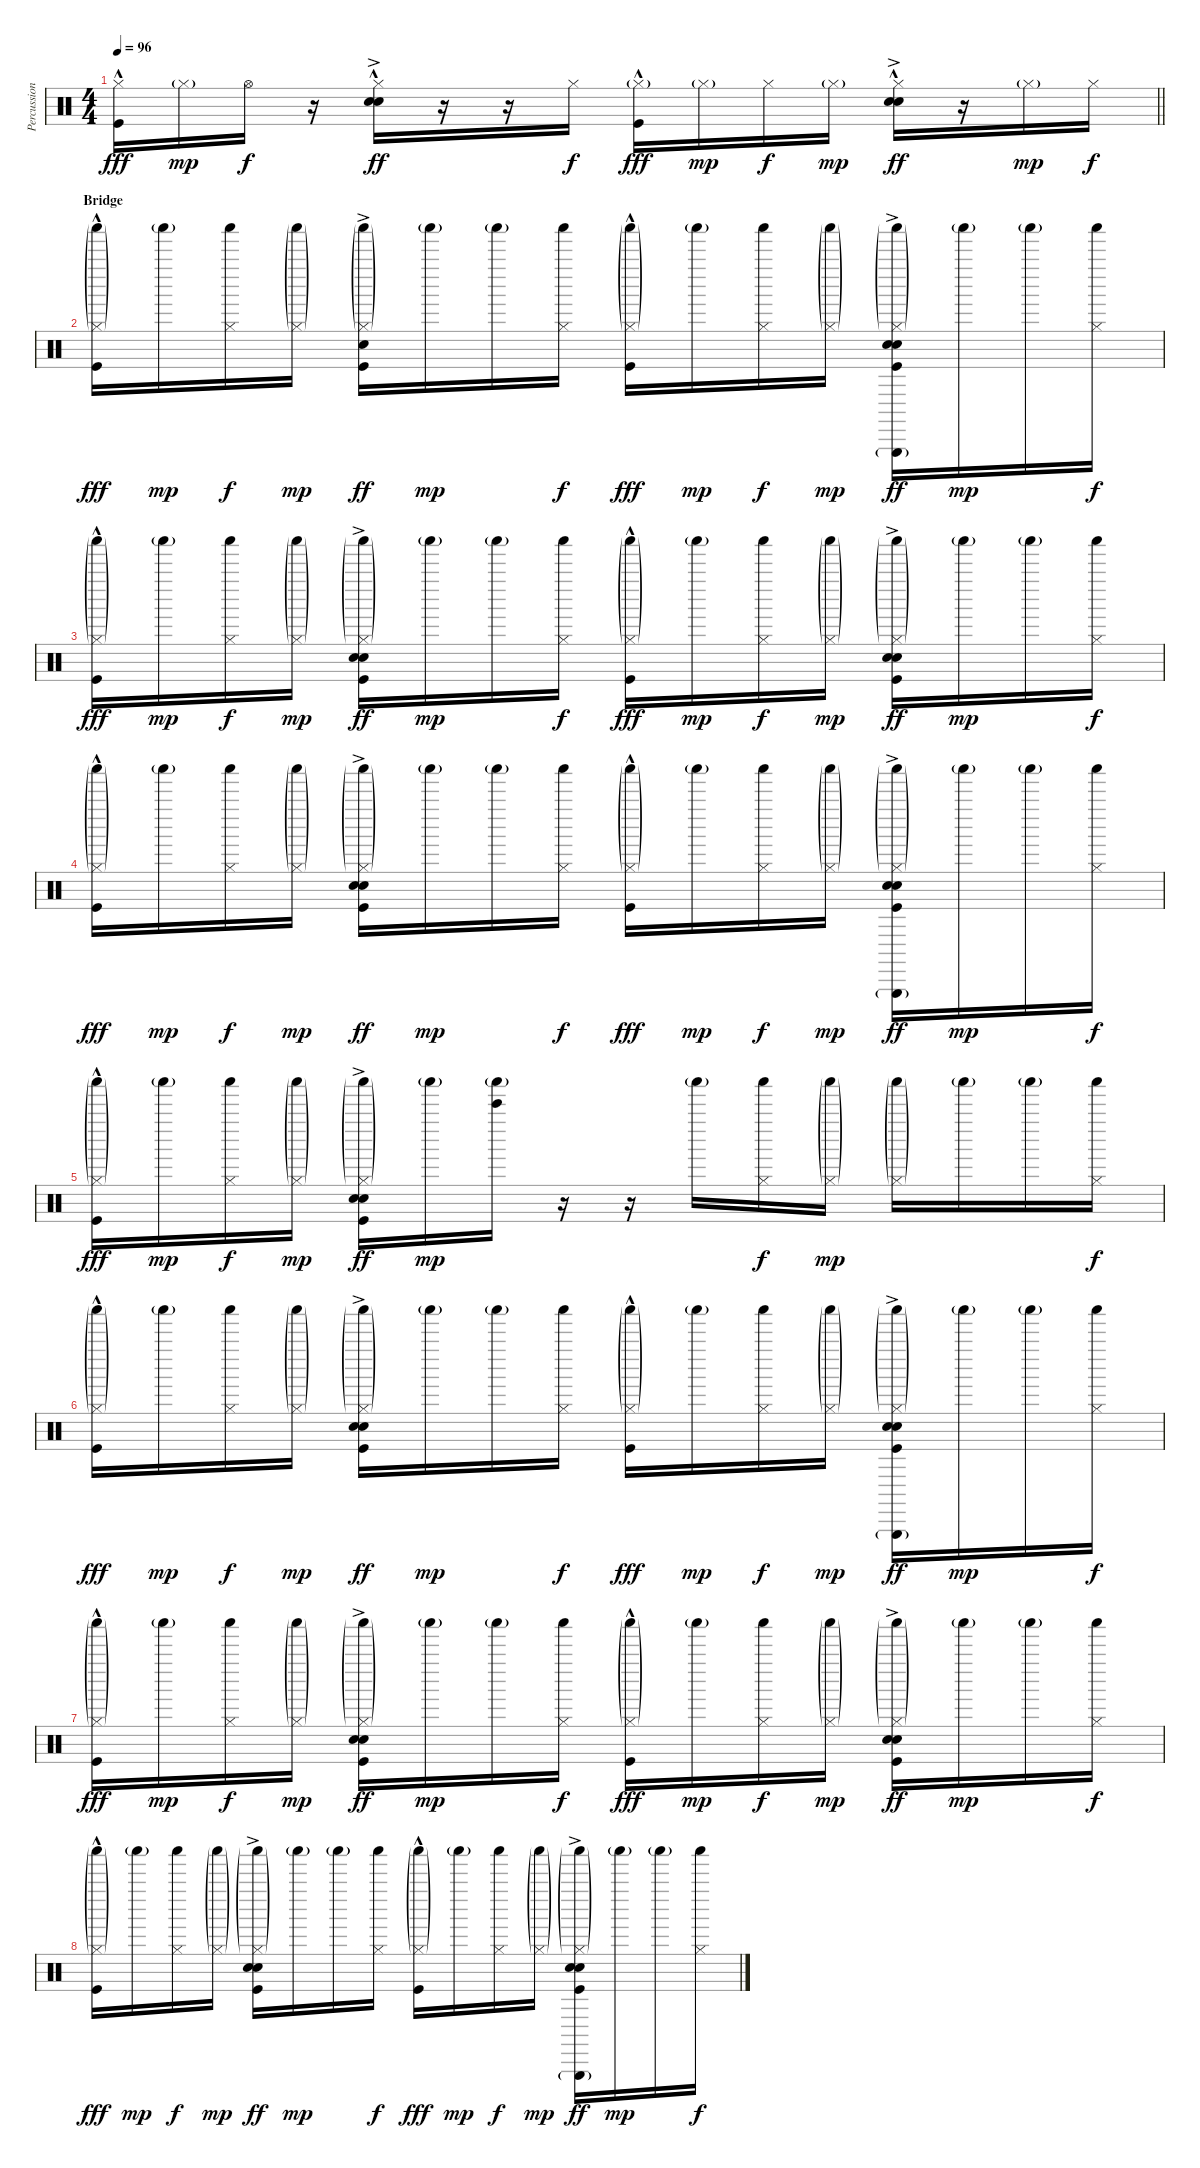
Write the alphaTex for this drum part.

\track ("Percussion" "Percussion") {instrument percussion}
\staff {score}
\articulation defaults
\ts (4 4)
\tempo 96
\clef neutral
\barLineRight lightlight
\ks c
("Hi-Hat (closed)" "Kick (hit)"{hac}).16{dy fff} "Hi-Hat (closed)"{g}.16{dy mp} "Hi-Hat (open)".16{dy f} r.16 ("Hi-Hat (closed)" "Hand Clap (hit)"{hac} "Snare (hit) 2"{ac}).16{dy ff} r.16 r.16 "Hi-Hat (closed)".16{dy f} ("Hi-Hat (closed)"{g} "Kick (hit)"{hac}).16{dy fff} "Hi-Hat (closed)"{g}.16{dy mp} "Hi-Hat (closed)".16{dy f} "Hi-Hat (closed)"{g}.16{dy mp} ("Hi-Hat (closed)" "Hand Clap (hit)"{hac} "Snare (hit) 2"{ac}).16{dy ff} r.16 "Hi-Hat (closed)"{g}.16{dy mp} "Hi-Hat (closed)".16{dy f} |
\section ("" "Bridge")
("Shaker (hit)"{g} "Hi-Hat (closed)"{g} "Kick (hit)"{hac}).16{dy fff} "Shaker (hit)"{g}.16{dy mp} ("Shaker (hit)" "Hi-Hat (closed)").16{dy f} ("Shaker (hit)"{g} "Hi-Hat (closed)"{g}).16{dy mp} ("Shaker (hit)"{g} "Hi-Hat (closed)"{g} "Snare (hit) 2"{ac} "Kick (hit)"{ac}).16{dy ff} "Shaker (hit)"{g}.16{dy mp} "Shaker (hit)"{g}.16 ("Shaker (hit)" "Hi-Hat (closed)").16{dy f} ("Shaker (hit)"{g} "Hi-Hat (closed)"{g} "Kick (hit)"{hac}).16{dy fff} "Shaker (hit)"{g}.16{dy mp} ("Shaker (hit)" "Hi-Hat (closed)").16{dy f} ("Shaker (hit)"{g} "Hi-Hat (closed)"{g}).16{dy mp} ("Triangle (hit)"{g} "Shaker (hit)"{g} "Hi-Hat (closed)"{g} "Hand Clap (hit)"{ac} "Snare (hit) 2"{ac} "Kick (hit)"{ac}).16{dy ff} "Shaker (hit)"{g}.16{dy mp} "Shaker (hit)"{g}.16 ("Shaker (hit)" "Hi-Hat (closed)").16{dy f} |
("Shaker (hit)"{g} "Hi-Hat (closed)"{g} "Kick (hit)"{hac}).16{dy fff} "Shaker (hit)"{g}.16{dy mp} ("Shaker (hit)" "Hi-Hat (closed)").16{dy f} ("Shaker (hit)"{g} "Hi-Hat (closed)"{g}).16{dy mp} ("Shaker (hit)"{g} "Hi-Hat (closed)"{g} "Hand Clap (hit)"{ac} "Snare (hit) 2"{ac} "Kick (hit)"{ac}).16{dy ff} "Shaker (hit)"{g}.16{dy mp} "Shaker (hit)"{g}.16 ("Shaker (hit)" "Hi-Hat (closed)").16{dy f} ("Shaker (hit)"{g} "Hi-Hat (closed)"{g} "Kick (hit)"{hac}).16{dy fff} "Shaker (hit)"{g}.16{dy mp} ("Shaker (hit)" "Hi-Hat (closed)").16{dy f} ("Shaker (hit)"{g} "Hi-Hat (closed)"{g}).16{dy mp} ("Shaker (hit)"{g} "Hi-Hat (closed)"{g} "Hand Clap (hit)"{ac} "Snare (hit) 2"{ac} "Kick (hit)"{ac}).16{dy ff} "Shaker (hit)"{g}.16{dy mp} "Shaker (hit)"{g}.16 ("Shaker (hit)" "Hi-Hat (closed)").16{dy f} |
("Shaker (hit)"{g} "Hi-Hat (closed)"{g} "Kick (hit)"{hac}).16{dy fff} "Shaker (hit)"{g}.16{dy mp} ("Shaker (hit)" "Hi-Hat (closed)").16{dy f} ("Shaker (hit)"{g} "Hi-Hat (closed)"{g}).16{dy mp} ("Shaker (hit)"{g} "Hi-Hat (closed)"{g} "Hand Clap (hit)"{ac} "Snare (hit) 2"{ac} "Kick (hit)"{ac}).16{dy ff} "Shaker (hit)"{g}.16{dy mp} "Shaker (hit)"{g}.16 ("Shaker (hit)" "Hi-Hat (closed)").16{dy f} ("Shaker (hit)"{g} "Hi-Hat (closed)"{g} "Kick (hit)"{hac}).16{dy fff} "Shaker (hit)"{g}.16{dy mp} ("Shaker (hit)" "Hi-Hat (closed)").16{dy f} ("Shaker (hit)"{g} "Hi-Hat (closed)"{g}).16{dy mp} ("Triangle (hit)"{g} "Shaker (hit)"{g} "Hi-Hat (closed)"{g} "Hand Clap (hit)"{ac} "Snare (hit) 2"{ac} "Kick (hit)"{ac}).16{dy ff} "Shaker (hit)"{g}.16{dy mp} "Shaker (hit)"{g}.16 ("Shaker (hit)" "Hi-Hat (closed)").16{dy f} |
("Shaker (hit)"{g} "Hi-Hat (closed)"{g} "Kick (hit)"{hac}).16{dy fff} "Shaker (hit)"{g}.16{dy mp} ("Shaker (hit)" "Hi-Hat (closed)").16{dy f} ("Shaker (hit)"{g} "Hi-Hat (closed)"{g}).16{dy mp} ("Shaker (hit)"{g} "Hi-Hat (closed)"{g} "Hand Clap (hit)"{ac} "Snare (hit) 2"{ac} "Kick (hit)"{ac}).16{dy ff} "Shaker (hit)"{g}.16{dy mp} ("Bell Tree (hit)" "Shaker (hit)"{g}).16 r.16 r.16 "Shaker (hit)"{g}.16 ("Shaker (hit)" "Hi-Hat (closed)").16{dy f} ("Shaker (hit)"{g} "Hi-Hat (closed)"{g}).16{dy mp} ("Shaker (hit)"{g} "Hi-Hat (closed)"{g}).16 "Shaker (hit)"{g}.16 "Shaker (hit)"{g}.16 ("Shaker (hit)" "Hi-Hat (closed)").16{dy f} |
("Shaker (hit)"{g} "Hi-Hat (closed)"{g} "Kick (hit)"{hac}).16{dy fff} "Shaker (hit)"{g}.16{dy mp} ("Shaker (hit)" "Hi-Hat (closed)").16{dy f} ("Shaker (hit)"{g} "Hi-Hat (closed)"{g}).16{dy mp} ("Shaker (hit)"{g} "Hi-Hat (closed)"{g} "Hand Clap (hit)"{ac} "Snare (hit) 2"{ac} "Kick (hit)"{ac}).16{dy ff} "Shaker (hit)"{g}.16{dy mp} "Shaker (hit)"{g}.16 ("Shaker (hit)" "Hi-Hat (closed)").16{dy f} ("Shaker (hit)"{g} "Hi-Hat (closed)"{g} "Kick (hit)"{hac}).16{dy fff} "Shaker (hit)"{g}.16{dy mp} ("Shaker (hit)" "Hi-Hat (closed)").16{dy f} ("Shaker (hit)"{g} "Hi-Hat (closed)"{g}).16{dy mp} ("Triangle (hit)"{g} "Shaker (hit)"{g} "Hi-Hat (closed)"{g} "Hand Clap (hit)"{ac} "Snare (hit) 2"{ac} "Kick (hit)"{ac}).16{dy ff} "Shaker (hit)"{g}.16{dy mp} "Shaker (hit)"{g}.16 ("Shaker (hit)" "Hi-Hat (closed)").16{dy f} |
("Shaker (hit)"{g} "Hi-Hat (closed)"{g} "Kick (hit)"{hac}).16{dy fff} "Shaker (hit)"{g}.16{dy mp} ("Shaker (hit)" "Hi-Hat (closed)").16{dy f} ("Shaker (hit)"{g} "Hi-Hat (closed)"{g}).16{dy mp} ("Shaker (hit)"{g} "Hi-Hat (closed)"{g} "Hand Clap (hit)"{ac} "Snare (hit) 2"{ac} "Kick (hit)"{ac}).16{dy ff} "Shaker (hit)"{g}.16{dy mp} "Shaker (hit)"{g}.16 ("Shaker (hit)" "Hi-Hat (closed)").16{dy f} ("Shaker (hit)"{g} "Hi-Hat (closed)"{g} "Kick (hit)"{hac}).16{dy fff} "Shaker (hit)"{g}.16{dy mp} ("Shaker (hit)" "Hi-Hat (closed)").16{dy f} ("Shaker (hit)"{g} "Hi-Hat (closed)"{g}).16{dy mp} ("Shaker (hit)"{g} "Hi-Hat (closed)"{g} "Hand Clap (hit)"{ac} "Snare (hit) 2"{ac} "Kick (hit)"{ac}).16{dy ff} "Shaker (hit)"{g}.16{dy mp} "Shaker (hit)"{g}.16 ("Shaker (hit)" "Hi-Hat (closed)").16{dy f} |
("Shaker (hit)"{g} "Hi-Hat (closed)"{g} "Kick (hit)"{hac}).16{dy fff} "Shaker (hit)"{g}.16{dy mp} ("Shaker (hit)" "Hi-Hat (closed)").16{dy f} ("Shaker (hit)"{g} "Hi-Hat (closed)"{g}).16{dy mp} ("Shaker (hit)"{g} "Hi-Hat (closed)"{g} "Hand Clap (hit)"{ac} "Snare (hit) 2"{ac} "Kick (hit)"{ac}).16{dy ff} "Shaker (hit)"{g}.16{dy mp} "Shaker (hit)"{g}.16 ("Shaker (hit)" "Hi-Hat (closed)").16{dy f} ("Shaker (hit)"{g} "Hi-Hat (closed)"{g} "Kick (hit)"{hac}).16{dy fff} "Shaker (hit)"{g}.16{dy mp} ("Shaker (hit)" "Hi-Hat (closed)").16{dy f} ("Shaker (hit)"{g} "Hi-Hat (closed)"{g}).16{dy mp} ("Triangle (hit)"{g} "Shaker (hit)"{g} "Hi-Hat (closed)"{g} "Hand Clap (hit)"{ac} "Snare (hit) 2"{ac} "Kick (hit)"{ac}).16{dy ff} "Shaker (hit)"{g}.16{dy mp} "Shaker (hit)"{g}.16 ("Shaker (hit)" "Hi-Hat (closed)").16{dy f}
